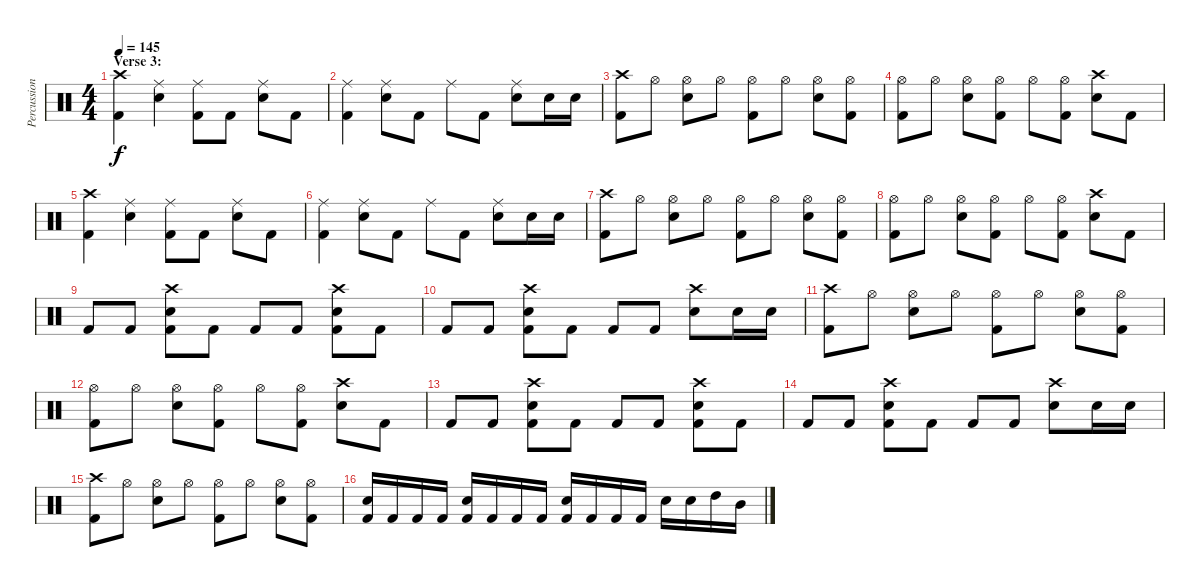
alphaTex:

\track ("Percussion" "Percussion") {instrument percussion}
\staff {score}
\articulation defaults
\ts (4 4)
\section ("" "Verse 3:")
\tempo 145
\clef neutral
\ks c
("Crash high (hit)" "Kick (hit) 2").4{dy f} ("Ride (middle)" "Electric Snare (hit)").4 ("Ride (middle)" "Kick (hit) 2").8 "Kick (hit) 2".8 ("Ride (middle)" "Electric Snare (hit)").8 "Kick (hit) 2".8 |
("Ride (middle)" "Kick (hit) 2").4 ("Ride (middle)" "Electric Snare (hit)").8 "Kick (hit) 2".8 "Ride (middle)".8 "Kick (hit) 2".8 ("Ride (middle)" "Electric Snare (hit)").8 "Electric Snare (hit)".16 "Electric Snare (hit)".16 |
("Crash high (hit)" "Kick (hit) 2").8 "Hi-Hat (open)".8 ("Hi-Hat (open)" "Electric Snare (hit)").8 "Hi-Hat (open)".8 ("Hi-Hat (open)" "Kick (hit) 2").8 "Hi-Hat (open)".8 ("Hi-Hat (open)" "Electric Snare (hit)").8 ("Hi-Hat (open)" "Kick (hit) 2").8 |
("Hi-Hat (open)" "Kick (hit) 2").8 "Hi-Hat (open)".8 ("Hi-Hat (open)" "Electric Snare (hit)").8 ("Hi-Hat (open)" "Kick (hit) 2").8 "Hi-Hat (open)".8 ("Hi-Hat (open)" "Kick (hit) 2").8 ("Crash high (hit)" "Electric Snare (hit)").8 "Kick (hit) 2".8 |
("Crash high (hit)" "Kick (hit) 2").4 ("Ride (middle)" "Electric Snare (hit)").4 ("Ride (middle)" "Kick (hit) 2").8 "Kick (hit) 2".8 ("Ride (middle)" "Electric Snare (hit)").8 "Kick (hit) 2".8 |
("Ride (middle)" "Kick (hit) 2").4 ("Ride (middle)" "Electric Snare (hit)").8 "Kick (hit) 2".8 "Ride (middle)".8 "Kick (hit) 2".8 ("Ride (middle)" "Electric Snare (hit)").8 "Electric Snare (hit)".16 "Electric Snare (hit)".16 |
("Crash high (hit)" "Kick (hit) 2").8 "Hi-Hat (open)".8 ("Hi-Hat (open)" "Electric Snare (hit)").8 "Hi-Hat (open)".8 ("Hi-Hat (open)" "Kick (hit) 2").8 "Hi-Hat (open)".8 ("Hi-Hat (open)" "Electric Snare (hit)").8 ("Hi-Hat (open)" "Kick (hit) 2").8 |
("Hi-Hat (open)" "Kick (hit) 2").8 "Hi-Hat (open)".8 ("Hi-Hat (open)" "Electric Snare (hit)").8 ("Hi-Hat (open)" "Kick (hit) 2").8 "Hi-Hat (open)".8 ("Hi-Hat (open)" "Kick (hit) 2").8 ("Crash high (hit)" "Electric Snare (hit)").8 "Kick (hit) 2".8 |
"Kick (hit) 2".8 "Kick (hit) 2".8 ("Crash high (hit)" "Electric Snare (hit)" "Kick (hit) 2").8 "Kick (hit) 2".8 "Kick (hit) 2".8 "Kick (hit) 2".8 ("Crash high (hit)" "Electric Snare (hit)" "Kick (hit) 2").8 "Kick (hit) 2".8 |
"Kick (hit) 2".8 "Kick (hit) 2".8 ("Crash high (hit)" "Electric Snare (hit)" "Kick (hit) 2").8 "Kick (hit) 2".8 "Kick (hit) 2".8 "Kick (hit) 2".8 ("Crash high (hit)" "Electric Snare (hit)").8 "Electric Snare (hit)".16 "Electric Snare (hit)".16 |
("Crash high (hit)" "Kick (hit) 2").8 "Hi-Hat (open)".8 ("Hi-Hat (open)" "Electric Snare (hit)").8 "Hi-Hat (open)".8 ("Hi-Hat (open)" "Kick (hit) 2").8 "Hi-Hat (open)".8 ("Hi-Hat (open)" "Electric Snare (hit)").8 ("Hi-Hat (open)" "Kick (hit) 2").8 |
("Hi-Hat (open)" "Kick (hit) 2").8 "Hi-Hat (open)".8 ("Hi-Hat (open)" "Electric Snare (hit)").8 ("Hi-Hat (open)" "Kick (hit) 2").8 "Hi-Hat (open)".8 ("Hi-Hat (open)" "Kick (hit) 2").8 ("Crash high (hit)" "Electric Snare (hit)").8 "Kick (hit) 2".8 |
"Kick (hit) 2".8 "Kick (hit) 2".8 ("Crash high (hit)" "Electric Snare (hit)" "Kick (hit) 2").8 "Kick (hit) 2".8 "Kick (hit) 2".8 "Kick (hit) 2".8 ("Crash high (hit)" "Electric Snare (hit)" "Kick (hit) 2").8 "Kick (hit) 2".8 |
"Kick (hit) 2".8 "Kick (hit) 2".8 ("Crash high (hit)" "Electric Snare (hit)" "Kick (hit) 2").8 "Kick (hit) 2".8 "Kick (hit) 2".8 "Kick (hit) 2".8 ("Crash high (hit)" "Electric Snare (hit)").8 "Electric Snare (hit)".16 "Electric Snare (hit)".16 |
("Crash high (hit)" "Kick (hit) 2").8 "Hi-Hat (open)".8 ("Hi-Hat (open)" "Electric Snare (hit)").8 "Hi-Hat (open)".8 ("Hi-Hat (open)" "Kick (hit) 2").8 "Hi-Hat (open)".8 ("Hi-Hat (open)" "Electric Snare (hit)").8 ("Hi-Hat (open)" "Kick (hit) 2").8 |
("Electric Snare (hit)" "Kick (hit) 2").16 "Kick (hit) 2".16 "Kick (hit) 2".16 "Kick (hit) 2".16 ("Electric Snare (hit)" "Kick (hit) 2").16 "Kick (hit) 2".16 "Kick (hit) 2".16 "Kick (hit) 2".16 ("Electric Snare (hit)" "Kick (hit) 2").16 "Kick (hit) 2".16 "Kick (hit) 2".16 "Kick (hit) 2".16 "Electric Snare (hit)".16 "Electric Snare (hit)".16 "High Tom (hit)".16 "Mid Tom (hit)".16
